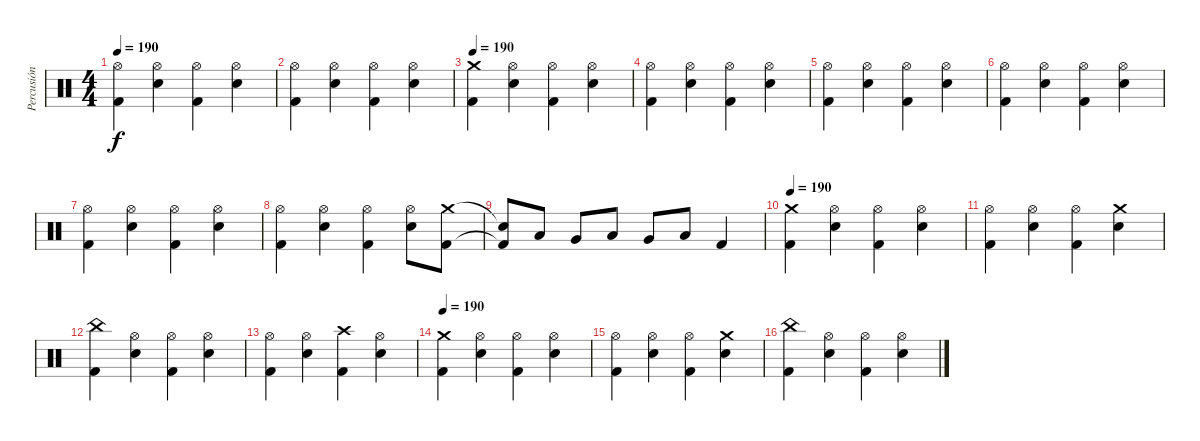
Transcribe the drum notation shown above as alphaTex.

\track ("Percusión" "Percusión") {instrument percussion}
\staff {score}
\articulation defaults
\ts (4 4)
\tempo 190
\clef neutral
\ks c
("Hi-Hat (open)" "Kick (hit) 2").4{dy f} ("Hi-Hat (open)" "Electric Snare (hit)").4 ("Hi-Hat (open)" "Kick (hit) 2").4 ("Hi-Hat (open)" "Electric Snare (hit)").4 |
("Hi-Hat (open)" "Kick (hit) 2").4 ("Hi-Hat (open)" "Electric Snare (hit)").4 ("Hi-Hat (open)" "Kick (hit) 2").4 ("Hi-Hat (open)" "Electric Snare (hit)").4 |
\tempo 190
("Crash medium (hit)" "Kick (hit) 2").4 ("Hi-Hat (open)" "Electric Snare (hit)").4 ("Hi-Hat (open)" "Kick (hit) 2").4 ("Hi-Hat (open)" "Electric Snare (hit)").4 |
("Hi-Hat (open)" "Kick (hit) 2").4 ("Hi-Hat (open)" "Electric Snare (hit)").4 ("Hi-Hat (open)" "Kick (hit) 2").4 ("Hi-Hat (open)" "Electric Snare (hit)").4 |
("Hi-Hat (open)" "Kick (hit) 2").4 ("Hi-Hat (open)" "Electric Snare (hit)").4 ("Hi-Hat (open)" "Kick (hit) 2").4 ("Hi-Hat (open)" "Electric Snare (hit)").4 |
("Hi-Hat (open)" "Kick (hit) 2").4 ("Hi-Hat (open)" "Electric Snare (hit)").4 ("Hi-Hat (open)" "Kick (hit) 2").4 ("Hi-Hat (open)" "Electric Snare (hit)").4 |
("Hi-Hat (open)" "Kick (hit) 2").4 ("Hi-Hat (open)" "Electric Snare (hit)").4 ("Hi-Hat (open)" "Kick (hit) 2").4 ("Hi-Hat (open)" "Electric Snare (hit)").4 |
("Hi-Hat (open)" "Kick (hit) 2").4 ("Hi-Hat (open)" "Electric Snare (hit)").4 ("Hi-Hat (open)" "Kick (hit) 2").4 ("Hi-Hat (open)" "Electric Snare (hit)").8 ("Crash medium (hit)" "Kick (hit) 2").8 |
("Snare (hit)"{t} "Kick (hit) 2"{t}).8 "Low Tom (hit)".8 "Very Low Tom (hit)".8 "Low Tom (hit)".8 "Very Low Tom (hit)".8 "Low Floor Tom (hit)".8 "Kick (hit) 2".4 |
\tempo 190
("Crash medium (hit)" "Kick (hit) 2").4 ("Hi-Hat (open)" "Electric Snare (hit)").4 ("Hi-Hat (open)" "Kick (hit) 2").4 ("Hi-Hat (open)" "Electric Snare (hit)").4 |
("Hi-Hat (open)" "Kick (hit) 2").4 ("Hi-Hat (open)" "Electric Snare (hit)").4 ("Hi-Hat (open)" "Kick (hit) 2").4 ("Crash medium (hit)" "Electric Snare (hit)").4 |
("China (hit)" "Kick (hit) 2").4 ("Hi-Hat (open)" "Electric Snare (hit)").4 ("Hi-Hat (open)" "Kick (hit) 2").4 ("Hi-Hat (open)" "Electric Snare (hit)").4 |
("Hi-Hat (open)" "Kick (hit) 2").4 ("Hi-Hat (open)" "Electric Snare (hit)").4 ("Crash high (hit)" "Kick (hit) 2").4 ("Hi-Hat (open)" "Electric Snare (hit)").4 |
\tempo 190
("Crash medium (hit)" "Kick (hit) 2").4 ("Hi-Hat (open)" "Electric Snare (hit)").4 ("Hi-Hat (open)" "Kick (hit) 2").4 ("Hi-Hat (open)" "Electric Snare (hit)").4 |
("Hi-Hat (open)" "Kick (hit) 2").4 ("Hi-Hat (open)" "Electric Snare (hit)").4 ("Hi-Hat (open)" "Kick (hit) 2").4 ("Crash medium (hit)" "Electric Snare (hit)").4 |
("China (hit)" "Kick (hit) 2").4 ("Hi-Hat (open)" "Electric Snare (hit)").4 ("Hi-Hat (open)" "Kick (hit) 2").4 ("Hi-Hat (open)" "Electric Snare (hit)").4
